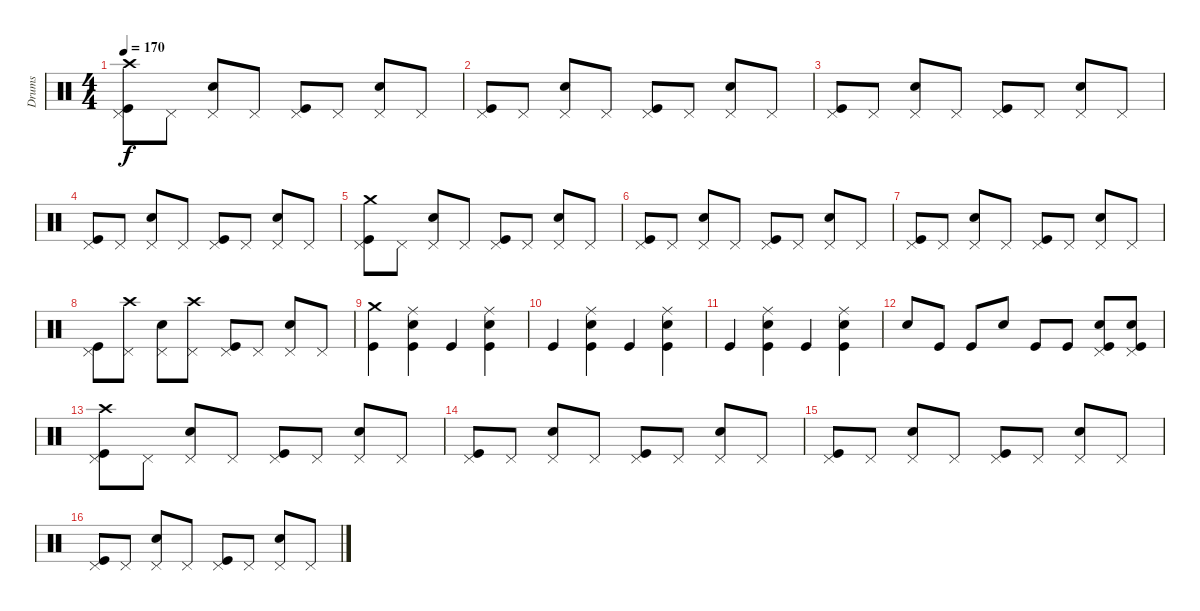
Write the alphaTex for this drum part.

\track ("Drums" "Drums") {instrument percussion}
\staff {score}
\articulation defaults
\ts (4 4)
\tempo 170
\clef neutral
\ks c
("Crash high (hit)" "Pedal Hi-Hat (hit)" "Kick (hit)").8{dy f} "Pedal Hi-Hat (hit)".8 ("Pedal Hi-Hat (hit)" "Electric Snare (hit)").8 "Pedal Hi-Hat (hit)".8 ("Pedal Hi-Hat (hit)" "Kick (hit)").8 "Pedal Hi-Hat (hit)".8 ("Pedal Hi-Hat (hit)" "Electric Snare (hit)").8 "Pedal Hi-Hat (hit)".8 |
("Pedal Hi-Hat (hit)" "Kick (hit)").8 "Pedal Hi-Hat (hit)".8 ("Pedal Hi-Hat (hit)" "Electric Snare (hit)").8 "Pedal Hi-Hat (hit)".8 ("Pedal Hi-Hat (hit)" "Kick (hit)").8 "Pedal Hi-Hat (hit)".8 ("Pedal Hi-Hat (hit)" "Electric Snare (hit)").8 "Pedal Hi-Hat (hit)".8 |
("Pedal Hi-Hat (hit)" "Kick (hit)").8 "Pedal Hi-Hat (hit)".8 ("Pedal Hi-Hat (hit)" "Electric Snare (hit)").8 "Pedal Hi-Hat (hit)".8 ("Pedal Hi-Hat (hit)" "Kick (hit)").8 "Pedal Hi-Hat (hit)".8 ("Pedal Hi-Hat (hit)" "Electric Snare (hit)").8 "Pedal Hi-Hat (hit)".8 |
("Pedal Hi-Hat (hit)" "Kick (hit)").8 "Pedal Hi-Hat (hit)".8 ("Pedal Hi-Hat (hit)" "Electric Snare (hit)").8 "Pedal Hi-Hat (hit)".8 ("Pedal Hi-Hat (hit)" "Kick (hit)").8 "Pedal Hi-Hat (hit)".8 ("Pedal Hi-Hat (hit)" "Electric Snare (hit)").8 "Pedal Hi-Hat (hit)".8 |
("Crash medium (hit)" "Pedal Hi-Hat (hit)" "Kick (hit)").8 "Pedal Hi-Hat (hit)".8 ("Pedal Hi-Hat (hit)" "Electric Snare (hit)").8 "Pedal Hi-Hat (hit)".8 ("Pedal Hi-Hat (hit)" "Kick (hit)").8 "Pedal Hi-Hat (hit)".8 ("Pedal Hi-Hat (hit)" "Electric Snare (hit)").8 "Pedal Hi-Hat (hit)".8 |
("Pedal Hi-Hat (hit)" "Kick (hit)").8 "Pedal Hi-Hat (hit)".8 ("Pedal Hi-Hat (hit)" "Electric Snare (hit)").8 "Pedal Hi-Hat (hit)".8 ("Pedal Hi-Hat (hit)" "Kick (hit)").8 "Pedal Hi-Hat (hit)".8 ("Pedal Hi-Hat (hit)" "Electric Snare (hit)").8 "Pedal Hi-Hat (hit)".8 |
("Pedal Hi-Hat (hit)" "Kick (hit)").8 "Pedal Hi-Hat (hit)".8 ("Pedal Hi-Hat (hit)" "Electric Snare (hit)").8 "Pedal Hi-Hat (hit)".8 ("Pedal Hi-Hat (hit)" "Kick (hit)").8 "Pedal Hi-Hat (hit)".8 ("Pedal Hi-Hat (hit)" "Electric Snare (hit)").8 "Pedal Hi-Hat (hit)".8 |
("Pedal Hi-Hat (hit)" "Kick (hit)").8 ("Crash high (hit)" "Pedal Hi-Hat (hit)").8 ("Pedal Hi-Hat (hit)" "Electric Snare (hit)").8 ("Crash high (hit)" "Pedal Hi-Hat (hit)").8 ("Pedal Hi-Hat (hit)" "Kick (hit)").8 "Pedal Hi-Hat (hit)".8 ("Pedal Hi-Hat (hit)" "Electric Snare (hit)").8 "Pedal Hi-Hat (hit)".8 |
("Crash medium (hit)" "Kick (hit)").4 ("Ride (middle)" "Kick (hit)" "Electric Snare (hit)").4 "Kick (hit)".4 ("Ride (middle)" "Kick (hit)" "Electric Snare (hit)").4 |
"Kick (hit)".4 ("Ride (middle)" "Kick (hit)" "Electric Snare (hit)").4 "Kick (hit)".4 ("Ride (middle)" "Kick (hit)" "Electric Snare (hit)").4 |
"Kick (hit)".4 ("Ride (middle)" "Kick (hit)" "Electric Snare (hit)").4 "Kick (hit)".4 ("Ride (middle)" "Kick (hit)" "Electric Snare (hit)").4 |
"Electric Snare (hit)".8 "Kick (hit)".8 "Kick (hit)".8 "Electric Snare (hit)".8 "Kick (hit)".8 "Kick (hit)".8 ("Pedal Hi-Hat (hit)" "Kick (hit)" "Electric Snare (hit)").8 ("Pedal Hi-Hat (hit)" "Kick (hit)" "Electric Snare (hit)").8 |
("Crash high (hit)" "Pedal Hi-Hat (hit)" "Kick (hit)").8 "Pedal Hi-Hat (hit)".8 ("Pedal Hi-Hat (hit)" "Electric Snare (hit)").8 "Pedal Hi-Hat (hit)".8 ("Pedal Hi-Hat (hit)" "Kick (hit)").8 "Pedal Hi-Hat (hit)".8 ("Pedal Hi-Hat (hit)" "Electric Snare (hit)").8 "Pedal Hi-Hat (hit)".8 |
("Pedal Hi-Hat (hit)" "Kick (hit)").8 "Pedal Hi-Hat (hit)".8 ("Pedal Hi-Hat (hit)" "Electric Snare (hit)").8 "Pedal Hi-Hat (hit)".8 ("Pedal Hi-Hat (hit)" "Kick (hit)").8 "Pedal Hi-Hat (hit)".8 ("Pedal Hi-Hat (hit)" "Electric Snare (hit)").8 "Pedal Hi-Hat (hit)".8 |
("Pedal Hi-Hat (hit)" "Kick (hit)").8 "Pedal Hi-Hat (hit)".8 ("Pedal Hi-Hat (hit)" "Electric Snare (hit)").8 "Pedal Hi-Hat (hit)".8 ("Pedal Hi-Hat (hit)" "Kick (hit)").8 "Pedal Hi-Hat (hit)".8 ("Pedal Hi-Hat (hit)" "Electric Snare (hit)").8 "Pedal Hi-Hat (hit)".8 |
("Pedal Hi-Hat (hit)" "Kick (hit)").8 "Pedal Hi-Hat (hit)".8 ("Pedal Hi-Hat (hit)" "Electric Snare (hit)").8 "Pedal Hi-Hat (hit)".8 ("Pedal Hi-Hat (hit)" "Kick (hit)").8 "Pedal Hi-Hat (hit)".8 ("Pedal Hi-Hat (hit)" "Electric Snare (hit)").8 "Pedal Hi-Hat (hit)".8
